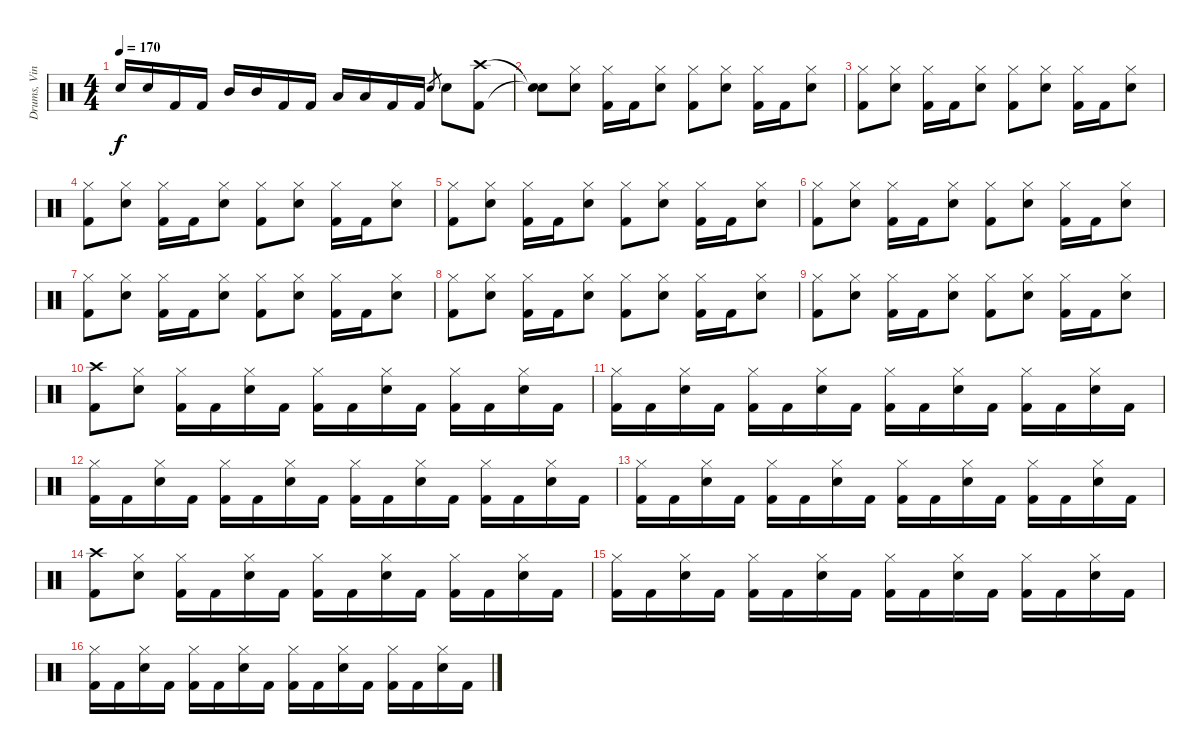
\track ("Drums, Vinnie" "Drums, Vin") {instrument percussion}
\staff {score}
\articulation defaults
\ts (4 4)
\tempo 170
\clef neutral
\ks c "Electric Snare (hit)".16{dy f} "Electric Snare (hit)".16 "Kick (hit) 2".16 "Kick (hit) 2".16 "Mid Tom (hit)".16 "Mid Tom (hit)".16 "Kick (hit) 2".16 "Kick (hit) 2".16 "Low Tom (hit)".16 "Low Tom (hit)".16 "Kick (hit) 2".16 "Kick (hit) 2".16 "Electric Snare (hit)".8{gr} "Electric Snare (hit)".8
("Crash high (hit)" "Kick (hit) 2").8 |
("Snare (hit)"{t} "Snare (hit)"{t}).8 ("Hi-Hat (closed)" "Electric Snare (hit)").8 ("Hi-Hat (closed)" "Kick (hit) 2").16 "Kick (hit) 2".16 ("Hi-Hat (closed)" "Electric Snare (hit)").8 ("Hi-Hat (closed)" "Kick (hit) 2").8 ("Hi-Hat (closed)" "Electric Snare (hit)").8 ("Hi-Hat (closed)" "Kick (hit) 2").16 "Kick (hit) 2".16 ("Hi-Hat (closed)" "Electric Snare (hit)").8 |
("Hi-Hat (closed)" "Kick (hit) 2").8 ("Hi-Hat (closed)" "Electric Snare (hit)").8 ("Hi-Hat (closed)" "Kick (hit) 2").16 "Kick (hit) 2".16 ("Hi-Hat (closed)" "Electric Snare (hit)").8 ("Hi-Hat (closed)" "Kick (hit) 2").8 ("Hi-Hat (closed)" "Electric Snare (hit)").8 ("Hi-Hat (closed)" "Kick (hit) 2").16 "Kick (hit) 2".16 ("Hi-Hat (closed)" "Electric Snare (hit)").8 |
("Hi-Hat (closed)" "Kick (hit) 2").8 ("Hi-Hat (closed)" "Electric Snare (hit)").8 ("Hi-Hat (closed)" "Kick (hit) 2").16 "Kick (hit) 2".16 ("Hi-Hat (closed)" "Electric Snare (hit)").8 ("Hi-Hat (closed)" "Kick (hit) 2").8 ("Hi-Hat (closed)" "Electric Snare (hit)").8 ("Hi-Hat (closed)" "Kick (hit) 2").16 "Kick (hit) 2".16 ("Hi-Hat (closed)" "Electric Snare (hit)").8 |
("Hi-Hat (closed)" "Kick (hit) 2").8 ("Hi-Hat (closed)" "Electric Snare (hit)").8 ("Hi-Hat (closed)" "Kick (hit) 2").16 "Kick (hit) 2".16 ("Hi-Hat (closed)" "Electric Snare (hit)").8 ("Hi-Hat (closed)" "Kick (hit) 2").8 ("Hi-Hat (closed)" "Electric Snare (hit)").8 ("Hi-Hat (closed)" "Kick (hit) 2").16 "Kick (hit) 2".16 ("Hi-Hat (closed)" "Electric Snare (hit)").8 |
("Hi-Hat (closed)" "Kick (hit) 2").8 ("Hi-Hat (closed)" "Electric Snare (hit)").8 ("Hi-Hat (closed)" "Kick (hit) 2").16 "Kick (hit) 2".16 ("Hi-Hat (closed)" "Electric Snare (hit)").8 ("Hi-Hat (closed)" "Kick (hit) 2").8 ("Hi-Hat (closed)" "Electric Snare (hit)").8 ("Hi-Hat (closed)" "Kick (hit) 2").16 "Kick (hit) 2".16 ("Hi-Hat (closed)" "Electric Snare (hit)").8 |
("Hi-Hat (closed)" "Kick (hit) 2").8 ("Hi-Hat (closed)" "Electric Snare (hit)").8 ("Hi-Hat (closed)" "Kick (hit) 2").16 "Kick (hit) 2".16 ("Hi-Hat (closed)" "Electric Snare (hit)").8 ("Hi-Hat (closed)" "Kick (hit) 2").8 ("Hi-Hat (closed)" "Electric Snare (hit)").8 ("Hi-Hat (closed)" "Kick (hit) 2").16 "Kick (hit) 2".16 ("Hi-Hat (closed)" "Electric Snare (hit)").8 |
("Hi-Hat (closed)" "Kick (hit) 2").8 ("Hi-Hat (closed)" "Electric Snare (hit)").8 ("Hi-Hat (closed)" "Kick (hit) 2").16 "Kick (hit) 2".16 ("Hi-Hat (closed)" "Electric Snare (hit)").8 ("Hi-Hat (closed)" "Kick (hit) 2").8 ("Hi-Hat (closed)" "Electric Snare (hit)").8 ("Hi-Hat (closed)" "Kick (hit) 2").16 "Kick (hit) 2".16 ("Hi-Hat (closed)" "Electric Snare (hit)").8 |
("Hi-Hat (closed)" "Kick (hit) 2").8 ("Hi-Hat (closed)" "Electric Snare (hit)").8 ("Hi-Hat (closed)" "Kick (hit) 2").16 "Kick (hit) 2".16 ("Hi-Hat (closed)" "Electric Snare (hit)").8 ("Hi-Hat (closed)" "Kick (hit) 2").8 ("Hi-Hat (closed)" "Electric Snare (hit)").8 ("Hi-Hat (closed)" "Kick (hit) 2").16 "Kick (hit) 2".16 ("Hi-Hat (closed)" "Electric Snare (hit)").8 |
("Crash high (hit)" "Kick (hit) 2").8 ("Hi-Hat (closed)" "Electric Snare (hit)").8 ("Hi-Hat (closed)" "Kick (hit) 2").16 "Kick (hit) 2".16 ("Hi-Hat (closed)" "Electric Snare (hit)").16 "Kick (hit) 2".16 ("Hi-Hat (closed)" "Kick (hit) 2").16 "Kick (hit) 2".16 ("Hi-Hat (closed)" "Electric Snare (hit)").16 "Kick (hit) 2".16 ("Hi-Hat (closed)" "Kick (hit) 2").16 "Kick (hit) 2".16 ("Hi-Hat (closed)" "Electric Snare (hit)").16 "Kick (hit) 2".16 |
("Hi-Hat (closed)" "Kick (hit) 2").16 "Kick (hit) 2".16 ("Hi-Hat (closed)" "Electric Snare (hit)").16 "Kick (hit) 2".16 ("Hi-Hat (closed)" "Kick (hit) 2").16 "Kick (hit) 2".16 ("Hi-Hat (closed)" "Electric Snare (hit)").16 "Kick (hit) 2".16 ("Hi-Hat (closed)" "Kick (hit) 2").16 "Kick (hit) 2".16 ("Hi-Hat (closed)" "Electric Snare (hit)").16 "Kick (hit) 2".16 ("Hi-Hat (closed)" "Kick (hit) 2").16 "Kick (hit) 2".16 ("Hi-Hat (closed)" "Electric Snare (hit)").16 "Kick (hit) 2".16 |
("Hi-Hat (closed)" "Kick (hit) 2").16 "Kick (hit) 2".16 ("Hi-Hat (closed)" "Electric Snare (hit)").16 "Kick (hit) 2".16 ("Hi-Hat (closed)" "Kick (hit) 2").16 "Kick (hit) 2".16 ("Hi-Hat (closed)" "Electric Snare (hit)").16 "Kick (hit) 2".16 ("Hi-Hat (closed)" "Kick (hit) 2").16 "Kick (hit) 2".16 ("Hi-Hat (closed)" "Electric Snare (hit)").16 "Kick (hit) 2".16 ("Hi-Hat (closed)" "Kick (hit) 2").16 "Kick (hit) 2".16 ("Hi-Hat (closed)" "Electric Snare (hit)").16 "Kick (hit) 2".16 |
("Hi-Hat (closed)" "Kick (hit) 2").16 "Kick (hit) 2".16 ("Hi-Hat (closed)" "Electric Snare (hit)").16 "Kick (hit) 2".16 ("Hi-Hat (closed)" "Kick (hit) 2").16 "Kick (hit) 2".16 ("Hi-Hat (closed)" "Electric Snare (hit)").16 "Kick (hit) 2".16 ("Hi-Hat (closed)" "Kick (hit) 2").16 "Kick (hit) 2".16 ("Hi-Hat (closed)" "Electric Snare (hit)").16 "Kick (hit) 2".16 ("Hi-Hat (closed)" "Kick (hit) 2").16 "Kick (hit) 2".16 ("Hi-Hat (closed)" "Electric Snare (hit)").16 "Kick (hit) 2".16 |
("Crash high (hit)" "Kick (hit) 2").8 ("Hi-Hat (closed)" "Electric Snare (hit)").8 ("Hi-Hat (closed)" "Kick (hit) 2").16 "Kick (hit) 2".16 ("Hi-Hat (closed)" "Electric Snare (hit)").16 "Kick (hit) 2".16 ("Hi-Hat (closed)" "Kick (hit) 2").16 "Kick (hit) 2".16 ("Hi-Hat (closed)" "Electric Snare (hit)").16 "Kick (hit) 2".16 ("Hi-Hat (closed)" "Kick (hit) 2").16 "Kick (hit) 2".16 ("Hi-Hat (closed)" "Electric Snare (hit)").16 "Kick (hit) 2".16 |
("Hi-Hat (closed)" "Kick (hit) 2").16 "Kick (hit) 2".16 ("Hi-Hat (closed)" "Electric Snare (hit)").16 "Kick (hit) 2".16 ("Hi-Hat (closed)" "Kick (hit) 2").16 "Kick (hit) 2".16 ("Hi-Hat (closed)" "Electric Snare (hit)").16 "Kick (hit) 2".16 ("Hi-Hat (closed)" "Kick (hit) 2").16 "Kick (hit) 2".16 ("Hi-Hat (closed)" "Electric Snare (hit)").16 "Kick (hit) 2".16 ("Hi-Hat (closed)" "Kick (hit) 2").16 "Kick (hit) 2".16 ("Hi-Hat (closed)" "Electric Snare (hit)").16 "Kick (hit) 2".16 |
("Hi-Hat (closed)" "Kick (hit) 2").16 "Kick (hit) 2".16 ("Hi-Hat (closed)" "Electric Snare (hit)").16 "Kick (hit) 2".16 ("Hi-Hat (closed)" "Kick (hit) 2").16 "Kick (hit) 2".16 ("Hi-Hat (closed)" "Electric Snare (hit)").16 "Kick (hit) 2".16 ("Hi-Hat (closed)" "Kick (hit) 2").16 "Kick (hit) 2".16 ("Hi-Hat (closed)" "Electric Snare (hit)").16 "Kick (hit) 2".16 ("Hi-Hat (closed)" "Kick (hit) 2").16 "Kick (hit) 2".16 ("Hi-Hat (closed)" "Electric Snare (hit)").16 "Kick (hit) 2".16
